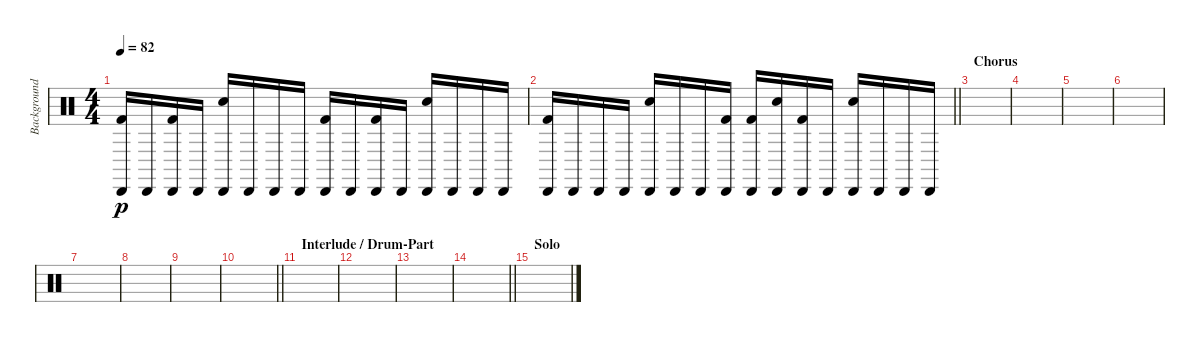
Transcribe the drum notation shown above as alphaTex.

\track ("Background Drums" "Background") {instrument percussion}
\staff {score}
\articulation defaults
\ts (4 4)
\tempo 82
\clef neutral
\ks c
("Cabasa (hit)" "Kick (hit) 2").16{dy p} "Cabasa (hit)".16 ("Cabasa (hit)" "Kick (hit) 2").16 "Cabasa (hit)".16 ("Cabasa (hit)" "Snare (hit) 2").16 "Cabasa (hit)".16 "Cabasa (hit)".16 "Cabasa (hit)".16 ("Cabasa (hit)" "Kick (hit) 2").16 "Cabasa (hit)".16 ("Cabasa (hit)" "Kick (hit) 2").16 "Cabasa (hit)".16 ("Cabasa (hit)" "Snare (hit) 2").16 "Cabasa (hit)".16 "Cabasa (hit)".16 "Cabasa (hit)".16 |
\barLineRight lightlight
("Cabasa (hit)" "Kick (hit) 2").16 "Cabasa (hit)".16 "Cabasa (hit)".16 "Cabasa (hit)".16 ("Cabasa (hit)" "Snare (hit) 2").16 "Cabasa (hit)".16 "Cabasa (hit)".16 ("Cabasa (hit)" "Kick (hit) 2").16 ("Cabasa (hit)" "Kick (hit) 2").16 ("Cabasa (hit)" "Electric Snare (hit)").16 ("Cabasa (hit)" "Kick (hit) 2").16 "Cabasa (hit)".16 ("Cabasa (hit)" "Snare (hit) 2").16 "Cabasa (hit)".16 "Cabasa (hit)".16 "Cabasa (hit)".16 |
\section ("" "Chorus")
|
|
|
|
|
|
|
\barLineRight lightlight
|
\section ("" "Interlude / Drum-Part")
|
|
|
\barLineRight lightlight
|
\section ("" "Solo")
